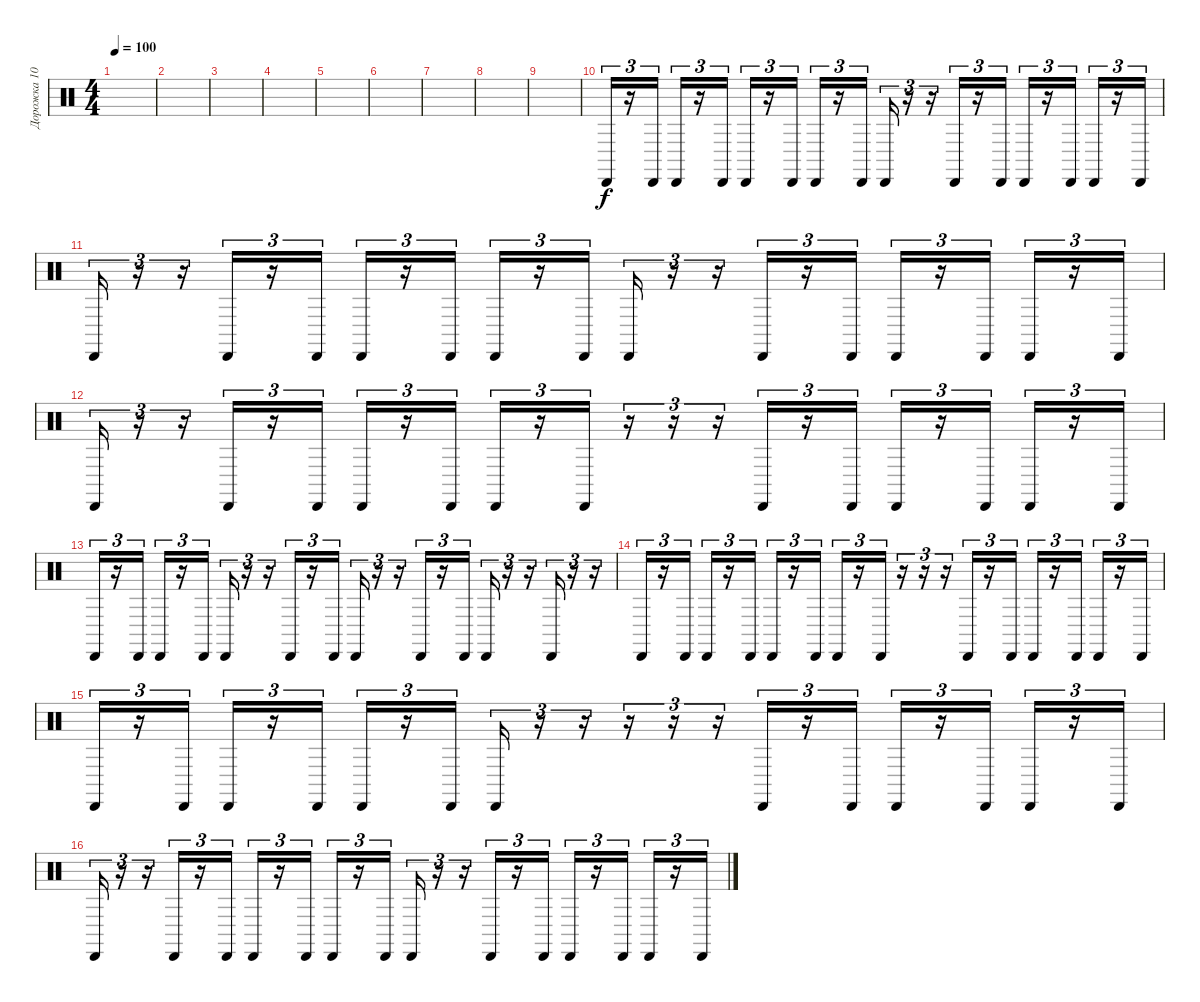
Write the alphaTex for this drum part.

\track ("Дорожка 10" "Дорожка 10") {instrument percussion}
\staff {score}
\articulation defaults
\ts (4 4)
\tempo 100
\clef neutral
\ks c
|
|
|
|
|
|
|
|
|
"Cabasa (hit)".16{tu (3 2)} r.16{tu (3 2)} "Cabasa (hit)".16{tu (3 2)} "Cabasa (hit)".16{tu (3 2)} r.16{tu (3 2)} "Cabasa (hit)".16{tu (3 2)} "Cabasa (hit)".16{tu (3 2)} r.16{tu (3 2)} "Cabasa (hit)".16{tu (3 2)} "Cabasa (hit)".16{tu (3 2)} r.16{tu (3 2)} "Cabasa (hit)".16{tu (3 2)} "Cabasa (hit)".16{tu (3 2)} r.16{tu (3 2)} r.16{tu (3 2)} "Cabasa (hit)".16{tu (3 2)} r.16{tu (3 2)} "Cabasa (hit)".16{tu (3 2)} "Cabasa (hit)".16{tu (3 2)} r.16{tu (3 2)} "Cabasa (hit)".16{tu (3 2)} "Cabasa (hit)".16{tu (3 2)} r.16{tu (3 2)} "Cabasa (hit)".16{tu (3 2)} |
"Cabasa (hit)".16{tu (3 2)} r.16{tu (3 2)} r.16{tu (3 2)} "Cabasa (hit)".16{tu (3 2)} r.16{tu (3 2)} "Cabasa (hit)".16{tu (3 2)} "Cabasa (hit)".16{tu (3 2)} r.16{tu (3 2)} "Cabasa (hit)".16{tu (3 2)} "Cabasa (hit)".16{tu (3 2)} r.16{tu (3 2)} "Cabasa (hit)".16{tu (3 2)} "Cabasa (hit)".16{tu (3 2)} r.16{tu (3 2)} r.16{tu (3 2)} "Cabasa (hit)".16{tu (3 2)} r.16{tu (3 2)} "Cabasa (hit)".16{tu (3 2)} "Cabasa (hit)".16{tu (3 2)} r.16{tu (3 2)} "Cabasa (hit)".16{tu (3 2)} "Cabasa (hit)".16{tu (3 2)} r.16{tu (3 2)} "Cabasa (hit)".16{tu (3 2)} |
"Cabasa (hit)".16{tu (3 2)} r.16{tu (3 2)} r.16{tu (3 2)} "Cabasa (hit)".16{tu (3 2)} r.16{tu (3 2)} "Cabasa (hit)".16{tu (3 2)} "Cabasa (hit)".16{tu (3 2)} r.16{tu (3 2)} "Cabasa (hit)".16{tu (3 2)} "Cabasa (hit)".16{tu (3 2)} r.16{tu (3 2)} "Cabasa (hit)".16{tu (3 2)} r.16{tu (3 2)} r.16{tu (3 2)} r.16{tu (3 2)} "Cabasa (hit)".16{tu (3 2)} r.16{tu (3 2)} "Cabasa (hit)".16{tu (3 2)} "Cabasa (hit)".16{tu (3 2)} r.16{tu (3 2)} "Cabasa (hit)".16{tu (3 2)} "Cabasa (hit)".16{tu (3 2)} r.16{tu (3 2)} "Cabasa (hit)".16{tu (3 2)} |
"Cabasa (hit)".16{tu (3 2)} r.16{tu (3 2)} "Cabasa (hit)".16{tu (3 2)} "Cabasa (hit)".16{tu (3 2)} r.16{tu (3 2)} "Cabasa (hit)".16{tu (3 2)} "Cabasa (hit)".16{tu (3 2)} r.16{tu (3 2)} r.16{tu (3 2)} "Cabasa (hit)".16{tu (3 2)} r.16{tu (3 2)} "Cabasa (hit)".16{tu (3 2)} "Cabasa (hit)".16{tu (3 2)} r.16{tu (3 2)} r.16{tu (3 2)} "Cabasa (hit)".16{tu (3 2)} r.16{tu (3 2)} "Cabasa (hit)".16{tu (3 2)} "Cabasa (hit)".16{tu (3 2)} r.16{tu (3 2)} r.16{tu (3 2)} "Cabasa (hit)".16{tu (3 2)} r.16{tu (3 2)} r.16{tu (3 2)} |
"Cabasa (hit)".16{tu (3 2)} r.16{tu (3 2)} "Cabasa (hit)".16{tu (3 2)} "Cabasa (hit)".16{tu (3 2)} r.16{tu (3 2)} "Cabasa (hit)".16{tu (3 2)} "Cabasa (hit)".16{tu (3 2)} r.16{tu (3 2)} "Cabasa (hit)".16{tu (3 2)} "Cabasa (hit)".16{tu (3 2)} r.16{tu (3 2)} "Cabasa (hit)".16{tu (3 2)} r.16{tu (3 2)} r.16{tu (3 2)} r.16{tu (3 2)} "Cabasa (hit)".16{tu (3 2)} r.16{tu (3 2)} "Cabasa (hit)".16{tu (3 2)} "Cabasa (hit)".16{tu (3 2)} r.16{tu (3 2)} "Cabasa (hit)".16{tu (3 2)} "Cabasa (hit)".16{tu (3 2)} r.16{tu (3 2)} "Cabasa (hit)".16{tu (3 2)} |
"Cabasa (hit)".16{tu (3 2)} r.16{tu (3 2)} "Cabasa (hit)".16{tu (3 2)} "Cabasa (hit)".16{tu (3 2)} r.16{tu (3 2)} "Cabasa (hit)".16{tu (3 2)} "Cabasa (hit)".16{tu (3 2)} r.16{tu (3 2)} "Cabasa (hit)".16{tu (3 2)} "Cabasa (hit)".16{tu (3 2)} r.16{tu (3 2)} r.16{tu (3 2)} r.16{tu (3 2)} r.16{tu (3 2)} r.16{tu (3 2)} "Cabasa (hit)".16{tu (3 2)} r.16{tu (3 2)} "Cabasa (hit)".16{tu (3 2)} "Cabasa (hit)".16{tu (3 2)} r.16{tu (3 2)} "Cabasa (hit)".16{tu (3 2)} "Cabasa (hit)".16{tu (3 2)} r.16{tu (3 2)} "Cabasa (hit)".16{tu (3 2)} |
"Cabasa (hit)".16{tu (3 2)} r.16{tu (3 2)} r.16{tu (3 2)} "Cabasa (hit)".16{tu (3 2)} r.16{tu (3 2)} "Cabasa (hit)".16{tu (3 2)} "Cabasa (hit)".16{tu (3 2)} r.16{tu (3 2)} "Cabasa (hit)".16{tu (3 2)} "Cabasa (hit)".16{tu (3 2)} r.16{tu (3 2)} "Cabasa (hit)".16{tu (3 2)} "Cabasa (hit)".16{tu (3 2)} r.16{tu (3 2)} r.16{tu (3 2)} "Cabasa (hit)".16{tu (3 2)} r.16{tu (3 2)} "Cabasa (hit)".16{tu (3 2)} "Cabasa (hit)".16{tu (3 2)} r.16{tu (3 2)} "Cabasa (hit)".16{tu (3 2)} "Cabasa (hit)".16{tu (3 2)} r.16{tu (3 2)} "Cabasa (hit)".16{tu (3 2)}
